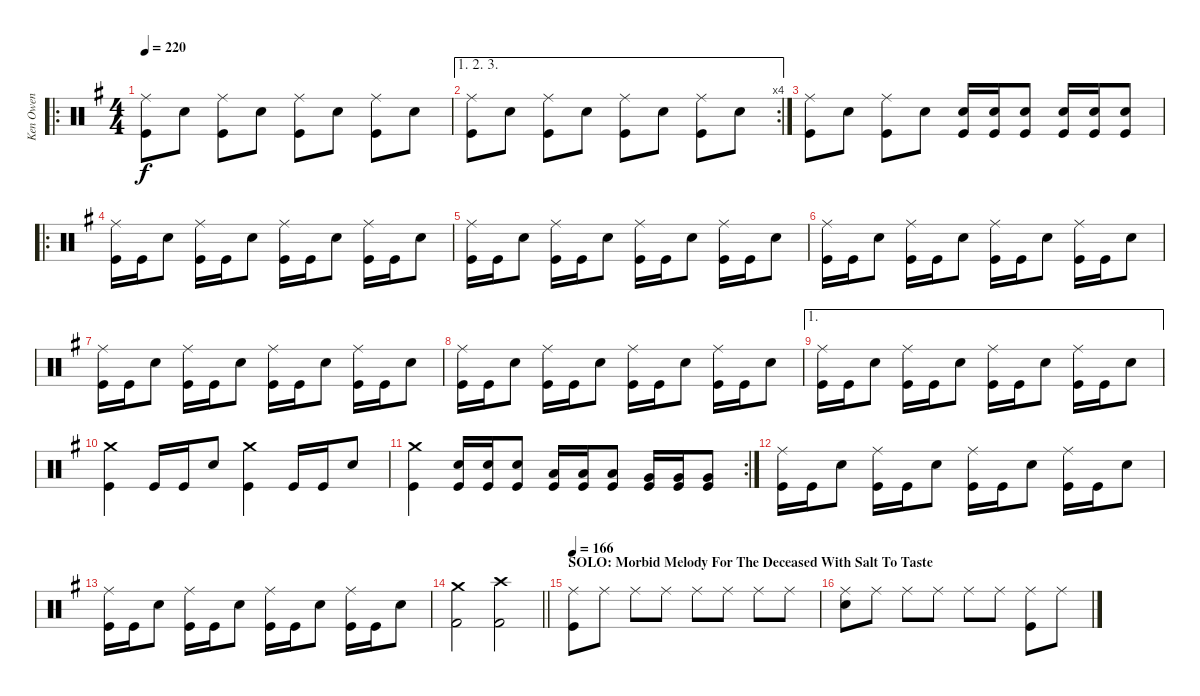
\track ("Ken Owen" "Ken Owen") {instrument percussion}
\staff {score}
\articulation defaults
\ro
\ts (4 4)
\tempo 220
\clef neutral
\ks g
("Ride (middle)" "Kick (hit)").8{dy f} "Snare (hit) 2".8 ("Ride (middle)" "Kick (hit)").8 "Snare (hit) 2".8 ("Ride (middle)" "Kick (hit)").8 "Snare (hit) 2".8 ("Ride (middle)" "Kick (hit)").8 "Snare (hit) 2".8 |
\ae (1 2 3)
\rc 4
("Ride (middle)" "Kick (hit)").8 "Snare (hit) 2".8 ("Ride (middle)" "Kick (hit)").8 "Snare (hit) 2".8 ("Ride (middle)" "Kick (hit)").8 "Snare (hit) 2".8 ("Ride (middle)" "Kick (hit)").8 "Snare (hit) 2".8 |
("Ride (middle)" "Kick (hit)").8 "Snare (hit) 2".8 ("Ride (middle)" "Kick (hit)").8 "Snare (hit) 2".8 ("Snare (hit) 2" "Kick (hit)").16 ("Snare (hit) 2" "Kick (hit)").16 ("Snare (hit) 2" "Kick (hit)").8 ("Snare (hit) 2" "Kick (hit)").16 ("Snare (hit) 2" "Kick (hit)").16 ("Snare (hit) 2" "Kick (hit)").8 |
\ro
("Ride (middle)" "Kick (hit)").16 "Kick (hit)".16 "Snare (hit) 2".8 ("Ride (middle)" "Kick (hit)").16 "Kick (hit)".16 "Snare (hit) 2".8 ("Ride (middle)" "Kick (hit)").16 "Kick (hit)".16 "Snare (hit) 2".8 ("Ride (middle)" "Kick (hit)").16 "Kick (hit)".16 "Snare (hit) 2".8 |
("Ride (middle)" "Kick (hit)").16 "Kick (hit)".16 "Snare (hit) 2".8 ("Ride (middle)" "Kick (hit)").16 "Kick (hit)".16 "Snare (hit) 2".8 ("Ride (middle)" "Kick (hit)").16 "Kick (hit)".16 "Snare (hit) 2".8 ("Ride (middle)" "Kick (hit)").16 "Kick (hit)".16 "Snare (hit) 2".8 |
("Ride (middle)" "Kick (hit)").16 "Kick (hit)".16 "Snare (hit) 2".8 ("Ride (middle)" "Kick (hit)").16 "Kick (hit)".16 "Snare (hit) 2".8 ("Ride (middle)" "Kick (hit)").16 "Kick (hit)".16 "Snare (hit) 2".8 ("Ride (middle)" "Kick (hit)").16 "Kick (hit)".16 "Snare (hit) 2".8 |
("Ride (middle)" "Kick (hit)").16 "Kick (hit)".16 "Snare (hit) 2".8 ("Ride (middle)" "Kick (hit)").16 "Kick (hit)".16 "Snare (hit) 2".8 ("Ride (middle)" "Kick (hit)").16 "Kick (hit)".16 "Snare (hit) 2".8 ("Ride (middle)" "Kick (hit)").16 "Kick (hit)".16 "Snare (hit) 2".8 |
("Ride (middle)" "Kick (hit)").16 "Kick (hit)".16 "Snare (hit) 2".8 ("Ride (middle)" "Kick (hit)").16 "Kick (hit)".16 "Snare (hit) 2".8 ("Ride (middle)" "Kick (hit)").16 "Kick (hit)".16 "Snare (hit) 2".8 ("Ride (middle)" "Kick (hit)").16 "Kick (hit)".16 "Snare (hit) 2".8 |
\ae 1
("Ride (middle)" "Kick (hit)").16 "Kick (hit)".16 "Snare (hit) 2".8 ("Ride (middle)" "Kick (hit)").16 "Kick (hit)".16 "Snare (hit) 2".8 ("Ride (middle)" "Kick (hit)").16 "Kick (hit)".16 "Snare (hit) 2".8 ("Ride (middle)" "Kick (hit)").16 "Kick (hit)".16 "Snare (hit) 2".8 |
("Crash medium (hit)" "Kick (hit)").4 "Kick (hit)".16 "Kick (hit)".16 "Snare (hit) 2".8 ("Crash medium (hit)" "Kick (hit)").4 "Kick (hit)".16 "Kick (hit)".16 "Snare (hit) 2".8 |
\rc 2
("Crash medium (hit)" "Kick (hit)").4 ("Snare (hit) 2" "Kick (hit)").16 ("Snare (hit) 2" "Kick (hit)").16 ("Snare (hit) 2" "Kick (hit)").8 ("Low Tom (hit)" "Kick (hit)").16 ("Low Tom (hit)" "Kick (hit)").16 ("Low Tom (hit)" "Kick (hit)").8 ("Very Low Tom (hit)" "Kick (hit)").16 ("Very Low Tom (hit)" "Kick (hit)").16 ("Very Low Tom (hit)" "Kick (hit)").8 |
("Ride (middle)" "Kick (hit)").16 "Kick (hit)".16 "Snare (hit) 2".8 ("Ride (middle)" "Kick (hit)").16 "Kick (hit)".16 "Snare (hit) 2".8 ("Ride (middle)" "Kick (hit)").16 "Kick (hit)".16 "Snare (hit) 2".8 ("Ride (middle)" "Kick (hit)").16 "Kick (hit)".16 "Snare (hit) 2".8 |
("Ride (middle)" "Kick (hit)").16 "Kick (hit)".16 "Snare (hit) 2".8 ("Ride (middle)" "Kick (hit)").16 "Kick (hit)".16 "Snare (hit) 2".8 ("Ride (middle)" "Kick (hit)").16 "Kick (hit)".16 "Snare (hit) 2".8 ("Ride (middle)" "Kick (hit)").16 "Kick (hit)".16 "Snare (hit) 2".8 |
\barLineRight lightlight
("Crash medium (hit)" "Kick (hit) 2").2 ("Crash high (hit)" "Kick (hit) 2").2 |
\section ("" "SOLO: Morbid Melody For The Deceased With Salt To Taste")
\tempo 166
("Ride (middle)" "Kick (hit)").8 "Ride (middle)".8 "Ride (middle)".8 "Ride (middle)".8 "Ride (middle)".8 "Ride (middle)".8 "Ride (middle)".8 "Ride (middle)".8 |
("Ride (middle)" "Snare (hit) 2").8 "Ride (middle)".8 "Ride (middle)".8 "Ride (middle)".8 "Ride (middle)".8 "Ride (middle)".8 ("Ride (middle)" "Kick (hit)").8 "Ride (middle)".8
